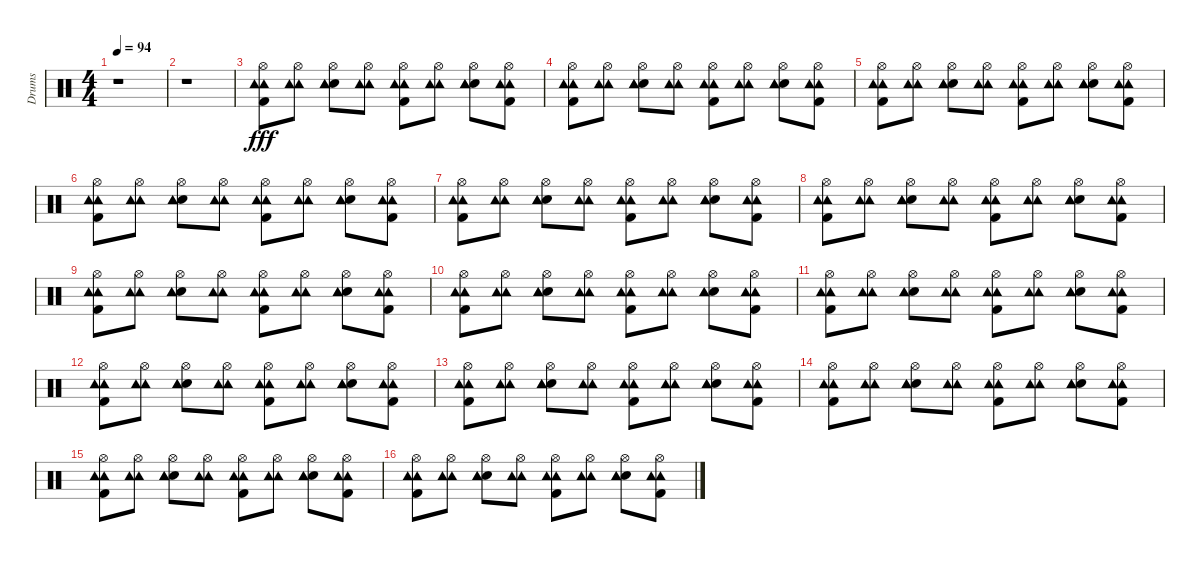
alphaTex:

\track ("Drums" "Drums") {instrument percussion}
\staff {score}
\articulation defaults
\ts (4 4)
\tempo 94
\clef neutral
\ks c
r.1{dy fff} |
r.1 |
("Hi-Hat (open)" "Kick (hit) 2" "Tambourine (hit)" "Tambourine (hit)").8 ("Hi-Hat (open)" "Tambourine (hit)" "Tambourine (hit)").8 ("Hi-Hat (open)" "Snare (hit) 2" "Tambourine (hit)" "Tambourine (hit)").8 ("Hi-Hat (open)" "Tambourine (hit)" "Tambourine (hit)").8 ("Hi-Hat (open)" "Kick (hit) 2" "Tambourine (hit)" "Tambourine (hit)").8 ("Hi-Hat (open)" "Tambourine (hit)" "Tambourine (hit)").8 ("Hi-Hat (open)" "Snare (hit) 2" "Tambourine (hit)" "Tambourine (hit)").8 ("Hi-Hat (open)" "Kick (hit) 2" "Tambourine (hit)" "Tambourine (hit)").8 |
("Hi-Hat (open)" "Kick (hit) 2" "Tambourine (hit)" "Tambourine (hit)").8 ("Hi-Hat (open)" "Tambourine (hit)" "Tambourine (hit)").8 ("Hi-Hat (open)" "Snare (hit) 2" "Tambourine (hit)" "Tambourine (hit)").8 ("Hi-Hat (open)" "Tambourine (hit)" "Tambourine (hit)").8 ("Hi-Hat (open)" "Kick (hit) 2" "Tambourine (hit)" "Tambourine (hit)").8 ("Hi-Hat (open)" "Tambourine (hit)" "Tambourine (hit)").8 ("Hi-Hat (open)" "Snare (hit) 2" "Tambourine (hit)" "Tambourine (hit)").8 ("Hi-Hat (open)" "Kick (hit) 2" "Tambourine (hit)" "Tambourine (hit)").8 |
("Hi-Hat (open)" "Kick (hit) 2" "Tambourine (hit)" "Tambourine (hit)").8 ("Hi-Hat (open)" "Tambourine (hit)" "Tambourine (hit)").8 ("Hi-Hat (open)" "Snare (hit) 2" "Tambourine (hit)" "Tambourine (hit)").8 ("Hi-Hat (open)" "Tambourine (hit)" "Tambourine (hit)").8 ("Hi-Hat (open)" "Kick (hit) 2" "Tambourine (hit)" "Tambourine (hit)").8 ("Hi-Hat (open)" "Tambourine (hit)" "Tambourine (hit)").8 ("Hi-Hat (open)" "Snare (hit) 2" "Tambourine (hit)" "Tambourine (hit)").8 ("Hi-Hat (open)" "Kick (hit) 2" "Tambourine (hit)" "Tambourine (hit)").8 |
("Hi-Hat (open)" "Kick (hit) 2" "Tambourine (hit)" "Tambourine (hit)").8 ("Hi-Hat (open)" "Tambourine (hit)" "Tambourine (hit)").8 ("Hi-Hat (open)" "Snare (hit) 2" "Tambourine (hit)" "Tambourine (hit)").8 ("Hi-Hat (open)" "Tambourine (hit)" "Tambourine (hit)").8 ("Hi-Hat (open)" "Kick (hit) 2" "Tambourine (hit)" "Tambourine (hit)").8 ("Hi-Hat (open)" "Tambourine (hit)" "Tambourine (hit)").8 ("Hi-Hat (open)" "Snare (hit) 2" "Tambourine (hit)" "Tambourine (hit)").8 ("Hi-Hat (open)" "Kick (hit) 2" "Tambourine (hit)" "Tambourine (hit)").8 |
("Hi-Hat (open)" "Kick (hit) 2" "Tambourine (hit)" "Tambourine (hit)").8 ("Hi-Hat (open)" "Tambourine (hit)" "Tambourine (hit)").8 ("Hi-Hat (open)" "Snare (hit) 2" "Tambourine (hit)" "Tambourine (hit)").8 ("Hi-Hat (open)" "Tambourine (hit)" "Tambourine (hit)").8 ("Hi-Hat (open)" "Kick (hit) 2" "Tambourine (hit)" "Tambourine (hit)").8 ("Hi-Hat (open)" "Tambourine (hit)" "Tambourine (hit)").8 ("Hi-Hat (open)" "Snare (hit) 2" "Tambourine (hit)" "Tambourine (hit)").8 ("Hi-Hat (open)" "Kick (hit) 2" "Tambourine (hit)" "Tambourine (hit)").8 |
("Hi-Hat (open)" "Kick (hit) 2" "Tambourine (hit)" "Tambourine (hit)").8 ("Hi-Hat (open)" "Tambourine (hit)" "Tambourine (hit)").8 ("Hi-Hat (open)" "Snare (hit) 2" "Tambourine (hit)" "Tambourine (hit)").8 ("Hi-Hat (open)" "Tambourine (hit)" "Tambourine (hit)").8 ("Hi-Hat (open)" "Kick (hit) 2" "Tambourine (hit)" "Tambourine (hit)").8 ("Hi-Hat (open)" "Tambourine (hit)" "Tambourine (hit)").8 ("Hi-Hat (open)" "Snare (hit) 2" "Tambourine (hit)" "Tambourine (hit)").8 ("Hi-Hat (open)" "Kick (hit) 2" "Tambourine (hit)" "Tambourine (hit)").8 |
("Hi-Hat (open)" "Kick (hit) 2" "Tambourine (hit)" "Tambourine (hit)").8 ("Hi-Hat (open)" "Tambourine (hit)" "Tambourine (hit)").8 ("Hi-Hat (open)" "Snare (hit) 2" "Tambourine (hit)" "Tambourine (hit)").8 ("Hi-Hat (open)" "Tambourine (hit)" "Tambourine (hit)").8 ("Hi-Hat (open)" "Kick (hit) 2" "Tambourine (hit)" "Tambourine (hit)").8 ("Hi-Hat (open)" "Tambourine (hit)" "Tambourine (hit)").8 ("Hi-Hat (open)" "Snare (hit) 2" "Tambourine (hit)" "Tambourine (hit)").8 ("Hi-Hat (open)" "Kick (hit) 2" "Tambourine (hit)" "Tambourine (hit)").8 |
("Hi-Hat (open)" "Kick (hit) 2" "Tambourine (hit)" "Tambourine (hit)").8 ("Hi-Hat (open)" "Tambourine (hit)" "Tambourine (hit)").8 ("Hi-Hat (open)" "Snare (hit) 2" "Tambourine (hit)" "Tambourine (hit)").8 ("Hi-Hat (open)" "Tambourine (hit)" "Tambourine (hit)").8 ("Hi-Hat (open)" "Kick (hit) 2" "Tambourine (hit)" "Tambourine (hit)").8 ("Hi-Hat (open)" "Tambourine (hit)" "Tambourine (hit)").8 ("Hi-Hat (open)" "Snare (hit) 2" "Tambourine (hit)" "Tambourine (hit)").8 ("Hi-Hat (open)" "Kick (hit) 2" "Tambourine (hit)" "Tambourine (hit)").8 |
("Hi-Hat (open)" "Kick (hit) 2" "Tambourine (hit)" "Tambourine (hit)").8 ("Hi-Hat (open)" "Tambourine (hit)" "Tambourine (hit)").8 ("Hi-Hat (open)" "Snare (hit) 2" "Tambourine (hit)" "Tambourine (hit)").8 ("Hi-Hat (open)" "Tambourine (hit)" "Tambourine (hit)").8 ("Hi-Hat (open)" "Kick (hit) 2" "Tambourine (hit)" "Tambourine (hit)").8 ("Hi-Hat (open)" "Tambourine (hit)" "Tambourine (hit)").8 ("Hi-Hat (open)" "Snare (hit) 2" "Tambourine (hit)" "Tambourine (hit)").8 ("Hi-Hat (open)" "Kick (hit) 2" "Tambourine (hit)" "Tambourine (hit)").8 |
("Hi-Hat (open)" "Kick (hit) 2" "Tambourine (hit)" "Tambourine (hit)").8 ("Hi-Hat (open)" "Tambourine (hit)" "Tambourine (hit)").8 ("Hi-Hat (open)" "Snare (hit) 2" "Tambourine (hit)" "Tambourine (hit)").8 ("Hi-Hat (open)" "Tambourine (hit)" "Tambourine (hit)").8 ("Hi-Hat (open)" "Kick (hit) 2" "Tambourine (hit)" "Tambourine (hit)").8 ("Hi-Hat (open)" "Tambourine (hit)" "Tambourine (hit)").8 ("Hi-Hat (open)" "Snare (hit) 2" "Tambourine (hit)" "Tambourine (hit)").8 ("Hi-Hat (open)" "Kick (hit) 2" "Tambourine (hit)" "Tambourine (hit)").8 |
("Hi-Hat (open)" "Kick (hit) 2" "Tambourine (hit)" "Tambourine (hit)").8 ("Hi-Hat (open)" "Tambourine (hit)" "Tambourine (hit)").8 ("Hi-Hat (open)" "Snare (hit) 2" "Tambourine (hit)" "Tambourine (hit)").8 ("Hi-Hat (open)" "Tambourine (hit)" "Tambourine (hit)").8 ("Hi-Hat (open)" "Kick (hit) 2" "Tambourine (hit)" "Tambourine (hit)").8 ("Hi-Hat (open)" "Tambourine (hit)" "Tambourine (hit)").8 ("Hi-Hat (open)" "Snare (hit) 2" "Tambourine (hit)" "Tambourine (hit)").8 ("Hi-Hat (open)" "Kick (hit) 2" "Tambourine (hit)" "Tambourine (hit)").8 |
("Hi-Hat (open)" "Kick (hit) 2" "Tambourine (hit)" "Tambourine (hit)").8 ("Hi-Hat (open)" "Tambourine (hit)" "Tambourine (hit)").8 ("Hi-Hat (open)" "Snare (hit) 2" "Tambourine (hit)" "Tambourine (hit)").8 ("Hi-Hat (open)" "Tambourine (hit)" "Tambourine (hit)").8 ("Hi-Hat (open)" "Kick (hit) 2" "Tambourine (hit)" "Tambourine (hit)").8 ("Hi-Hat (open)" "Tambourine (hit)" "Tambourine (hit)").8 ("Hi-Hat (open)" "Snare (hit) 2" "Tambourine (hit)" "Tambourine (hit)").8 ("Hi-Hat (open)" "Kick (hit) 2" "Tambourine (hit)" "Tambourine (hit)").8 |
("Hi-Hat (open)" "Kick (hit) 2" "Tambourine (hit)" "Tambourine (hit)").8 ("Hi-Hat (open)" "Tambourine (hit)" "Tambourine (hit)").8 ("Hi-Hat (open)" "Snare (hit) 2" "Tambourine (hit)" "Tambourine (hit)").8 ("Hi-Hat (open)" "Tambourine (hit)" "Tambourine (hit)").8 ("Hi-Hat (open)" "Kick (hit) 2" "Tambourine (hit)" "Tambourine (hit)").8 ("Hi-Hat (open)" "Tambourine (hit)" "Tambourine (hit)").8 ("Hi-Hat (open)" "Snare (hit) 2" "Tambourine (hit)" "Tambourine (hit)").8 ("Hi-Hat (open)" "Kick (hit) 2" "Tambourine (hit)" "Tambourine (hit)").8 |
("Hi-Hat (open)" "Kick (hit) 2" "Tambourine (hit)" "Tambourine (hit)").8 ("Hi-Hat (open)" "Tambourine (hit)" "Tambourine (hit)").8 ("Hi-Hat (open)" "Snare (hit) 2" "Tambourine (hit)" "Tambourine (hit)").8 ("Hi-Hat (open)" "Tambourine (hit)" "Tambourine (hit)").8 ("Hi-Hat (open)" "Kick (hit) 2" "Tambourine (hit)" "Tambourine (hit)").8 ("Hi-Hat (open)" "Tambourine (hit)" "Tambourine (hit)").8 ("Hi-Hat (open)" "Snare (hit) 2" "Tambourine (hit)" "Tambourine (hit)").8 ("Hi-Hat (open)" "Kick (hit) 2" "Tambourine (hit)" "Tambourine (hit)").8
